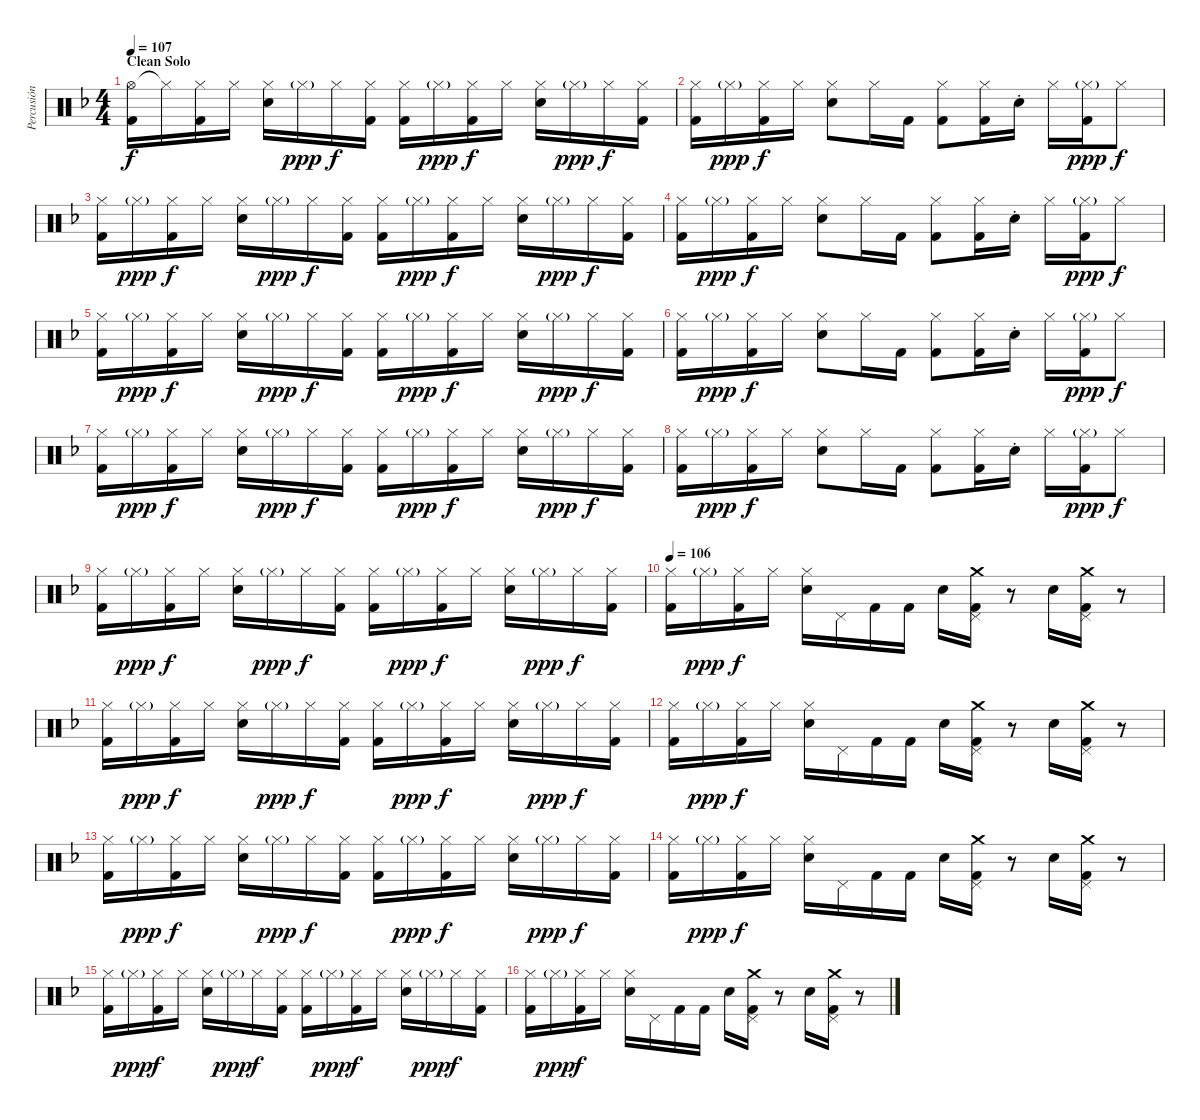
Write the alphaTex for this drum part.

\track ("Percusión" "Percusión") {instrument percussion}
\staff {score}
\articulation defaults
\ts (4 4)
\section ("" "Clean Solo")
\tempo 107
\clef neutral
\ks f
("Hi-Hat (open)" "Kick (hit) 2").16{dy f} "Hi-Hat (closed)"{t}.16 ("Hi-Hat (closed)" "Kick (hit) 2").16 "Hi-Hat (closed)".16 ("Hi-Hat (closed)" "Snare (hit) 2").16 "Hi-Hat (closed)"{g}.16{dy ppp} "Hi-Hat (closed)".16{dy f} ("Hi-Hat (closed)" "Kick (hit) 2").16 ("Hi-Hat (closed)" "Kick (hit) 2").16 "Hi-Hat (closed)"{g}.16{dy ppp} ("Hi-Hat (closed)" "Kick (hit) 2").16{dy f} "Hi-Hat (closed)".16 ("Hi-Hat (closed)" "Snare (hit) 2").16 "Hi-Hat (closed)"{g}.16{dy ppp} "Hi-Hat (closed)".16{dy f} ("Hi-Hat (closed)" "Kick (hit) 2").16 |
("Hi-Hat (closed)" "Kick (hit) 2").16 "Hi-Hat (closed)"{g}.16{dy ppp} ("Hi-Hat (closed)" "Kick (hit) 2").16{dy f} "Hi-Hat (closed)".16 ("Hi-Hat (closed)" "Snare (hit) 2").8 "Hi-Hat (closed)".16 "Kick (hit) 2".16 ("Hi-Hat (closed)" "Kick (hit) 2").8 ("Hi-Hat (closed)" "Kick (hit) 2").16 "Snare (hit) 2"{st}.16 "Hi-Hat (closed)".16 ("Hi-Hat (closed)"{g} "Kick (hit) 2").16{dy ppp} "Hi-Hat (closed)".8{dy f} |
("Hi-Hat (closed)" "Kick (hit) 2").16 "Hi-Hat (closed)"{g}.16{dy ppp} ("Hi-Hat (closed)" "Kick (hit) 2").16{dy f} "Hi-Hat (closed)".16 ("Hi-Hat (closed)" "Snare (hit) 2").16 "Hi-Hat (closed)"{g}.16{dy ppp} "Hi-Hat (closed)".16{dy f} ("Hi-Hat (closed)" "Kick (hit) 2").16 ("Hi-Hat (closed)" "Kick (hit) 2").16 "Hi-Hat (closed)"{g}.16{dy ppp} ("Hi-Hat (closed)" "Kick (hit) 2").16{dy f} "Hi-Hat (closed)".16 ("Hi-Hat (closed)" "Snare (hit) 2").16 "Hi-Hat (closed)"{g}.16{dy ppp} "Hi-Hat (closed)".16{dy f} ("Hi-Hat (closed)" "Kick (hit) 2").16 |
("Hi-Hat (closed)" "Kick (hit) 2").16 "Hi-Hat (closed)"{g}.16{dy ppp} ("Hi-Hat (closed)" "Kick (hit) 2").16{dy f} "Hi-Hat (closed)".16 ("Hi-Hat (closed)" "Snare (hit) 2").8 "Hi-Hat (closed)".16 "Kick (hit) 2".16 ("Hi-Hat (closed)" "Kick (hit) 2").8 ("Hi-Hat (closed)" "Kick (hit) 2").16 "Snare (hit) 2"{st}.16 "Hi-Hat (closed)".16 ("Hi-Hat (closed)"{g} "Kick (hit) 2").16{dy ppp} "Hi-Hat (closed)".8{dy f} |
("Hi-Hat (closed)" "Kick (hit) 2").16 "Hi-Hat (closed)"{g}.16{dy ppp} ("Hi-Hat (closed)" "Kick (hit) 2").16{dy f} "Hi-Hat (closed)".16 ("Hi-Hat (closed)" "Snare (hit) 2").16 "Hi-Hat (closed)"{g}.16{dy ppp} "Hi-Hat (closed)".16{dy f} ("Hi-Hat (closed)" "Kick (hit) 2").16 ("Hi-Hat (closed)" "Kick (hit) 2").16 "Hi-Hat (closed)"{g}.16{dy ppp} ("Hi-Hat (closed)" "Kick (hit) 2").16{dy f} "Hi-Hat (closed)".16 ("Hi-Hat (closed)" "Snare (hit) 2").16 "Hi-Hat (closed)"{g}.16{dy ppp} "Hi-Hat (closed)".16{dy f} ("Hi-Hat (closed)" "Kick (hit) 2").16 |
("Hi-Hat (closed)" "Kick (hit) 2").16 "Hi-Hat (closed)"{g}.16{dy ppp} ("Hi-Hat (closed)" "Kick (hit) 2").16{dy f} "Hi-Hat (closed)".16 ("Hi-Hat (closed)" "Snare (hit) 2").8 "Hi-Hat (closed)".16 "Kick (hit) 2".16 ("Hi-Hat (closed)" "Kick (hit) 2").8 ("Hi-Hat (closed)" "Kick (hit) 2").16 "Snare (hit) 2"{st}.16 "Hi-Hat (closed)".16 ("Hi-Hat (closed)"{g} "Kick (hit) 2").16{dy ppp} "Hi-Hat (closed)".8{dy f} |
("Hi-Hat (closed)" "Kick (hit) 2").16 "Hi-Hat (closed)"{g}.16{dy ppp} ("Hi-Hat (closed)" "Kick (hit) 2").16{dy f} "Hi-Hat (closed)".16 ("Hi-Hat (closed)" "Snare (hit) 2").16 "Hi-Hat (closed)"{g}.16{dy ppp} "Hi-Hat (closed)".16{dy f} ("Hi-Hat (closed)" "Kick (hit) 2").16 ("Hi-Hat (closed)" "Kick (hit) 2").16 "Hi-Hat (closed)"{g}.16{dy ppp} ("Hi-Hat (closed)" "Kick (hit) 2").16{dy f} "Hi-Hat (closed)".16 ("Hi-Hat (closed)" "Snare (hit) 2").16 "Hi-Hat (closed)"{g}.16{dy ppp} "Hi-Hat (closed)".16{dy f} ("Hi-Hat (closed)" "Kick (hit) 2").16 |
("Hi-Hat (closed)" "Kick (hit) 2").16 "Hi-Hat (closed)"{g}.16{dy ppp} ("Hi-Hat (closed)" "Kick (hit) 2").16{dy f} "Hi-Hat (closed)".16 ("Hi-Hat (closed)" "Snare (hit) 2").8 "Hi-Hat (closed)".16 "Kick (hit) 2".16 ("Hi-Hat (closed)" "Kick (hit) 2").8 ("Hi-Hat (closed)" "Kick (hit) 2").16 "Snare (hit) 2"{st}.16 "Hi-Hat (closed)".16 ("Hi-Hat (closed)"{g} "Kick (hit) 2").16{dy ppp} "Hi-Hat (closed)".8{dy f} |
("Hi-Hat (closed)" "Kick (hit) 2").16 "Hi-Hat (closed)"{g}.16{dy ppp} ("Hi-Hat (closed)" "Kick (hit) 2").16{dy f} "Hi-Hat (closed)".16 ("Hi-Hat (closed)" "Snare (hit) 2").16 "Hi-Hat (closed)"{g}.16{dy ppp} "Hi-Hat (closed)".16{dy f} ("Hi-Hat (closed)" "Kick (hit) 2").16 ("Hi-Hat (closed)" "Kick (hit) 2").16 "Hi-Hat (closed)"{g}.16{dy ppp} ("Hi-Hat (closed)" "Kick (hit) 2").16{dy f} "Hi-Hat (closed)".16 ("Hi-Hat (closed)" "Snare (hit) 2").16 "Hi-Hat (closed)"{g}.16{dy ppp} "Hi-Hat (closed)".16{dy f} ("Hi-Hat (closed)" "Kick (hit) 2").16 |
\tempo 106
("Hi-Hat (closed)" "Kick (hit) 2").16 "Hi-Hat (closed)"{g}.16{dy ppp} ("Hi-Hat (closed)" "Kick (hit) 2").16{dy f} "Hi-Hat (closed)".16 ("Hi-Hat (closed)" "Snare (hit) 2").16 "Pedal Hi-Hat (hit)".16 "Kick (hit) 2".16 "Kick (hit) 2".16 "Snare (hit) 2".16 ("Crash medium (hit)" "Pedal Hi-Hat (hit)" "Kick (hit) 2").16 r.8 "Snare (hit) 2".16 ("Crash medium (hit)" "Pedal Hi-Hat (hit)" "Kick (hit) 2").16 r.8 |
("Hi-Hat (closed)" "Kick (hit) 2").16 "Hi-Hat (closed)"{g}.16{dy ppp} ("Hi-Hat (closed)" "Kick (hit) 2").16{dy f} "Hi-Hat (closed)".16 ("Hi-Hat (closed)" "Snare (hit) 2").16 "Hi-Hat (closed)"{g}.16{dy ppp} "Hi-Hat (closed)".16{dy f} ("Hi-Hat (closed)" "Kick (hit) 2").16 ("Hi-Hat (closed)" "Kick (hit) 2").16 "Hi-Hat (closed)"{g}.16{dy ppp} ("Hi-Hat (closed)" "Kick (hit) 2").16{dy f} "Hi-Hat (closed)".16 ("Hi-Hat (closed)" "Snare (hit) 2").16 "Hi-Hat (closed)"{g}.16{dy ppp} "Hi-Hat (closed)".16{dy f} ("Hi-Hat (closed)" "Kick (hit) 2").16 |
("Hi-Hat (closed)" "Kick (hit) 2").16 "Hi-Hat (closed)"{g}.16{dy ppp} ("Hi-Hat (closed)" "Kick (hit) 2").16{dy f} "Hi-Hat (closed)".16 ("Hi-Hat (closed)" "Snare (hit) 2").16 "Pedal Hi-Hat (hit)".16 "Kick (hit) 2".16 "Kick (hit) 2".16 "Snare (hit) 2".16 ("Crash medium (hit)" "Pedal Hi-Hat (hit)" "Kick (hit) 2").16 r.8 "Snare (hit) 2".16 ("Crash medium (hit)" "Pedal Hi-Hat (hit)" "Kick (hit) 2").16 r.8 |
("Hi-Hat (closed)" "Kick (hit) 2").16 "Hi-Hat (closed)"{g}.16{dy ppp} ("Hi-Hat (closed)" "Kick (hit) 2").16{dy f} "Hi-Hat (closed)".16 ("Hi-Hat (closed)" "Snare (hit) 2").16 "Hi-Hat (closed)"{g}.16{dy ppp} "Hi-Hat (closed)".16{dy f} ("Hi-Hat (closed)" "Kick (hit) 2").16 ("Hi-Hat (closed)" "Kick (hit) 2").16 "Hi-Hat (closed)"{g}.16{dy ppp} ("Hi-Hat (closed)" "Kick (hit) 2").16{dy f} "Hi-Hat (closed)".16 ("Hi-Hat (closed)" "Snare (hit) 2").16 "Hi-Hat (closed)"{g}.16{dy ppp} "Hi-Hat (closed)".16{dy f} ("Hi-Hat (closed)" "Kick (hit) 2").16 |
("Hi-Hat (closed)" "Kick (hit) 2").16 "Hi-Hat (closed)"{g}.16{dy ppp} ("Hi-Hat (closed)" "Kick (hit) 2").16{dy f} "Hi-Hat (closed)".16 ("Hi-Hat (closed)" "Snare (hit) 2").16 "Pedal Hi-Hat (hit)".16 "Kick (hit) 2".16 "Kick (hit) 2".16 "Snare (hit) 2".16 ("Crash medium (hit)" "Pedal Hi-Hat (hit)" "Kick (hit) 2").16 r.8 "Snare (hit) 2".16 ("Crash medium (hit)" "Pedal Hi-Hat (hit)" "Kick (hit) 2").16 r.8 |
("Hi-Hat (closed)" "Kick (hit) 2").16 "Hi-Hat (closed)"{g}.16{dy ppp} ("Hi-Hat (closed)" "Kick (hit) 2").16{dy f} "Hi-Hat (closed)".16 ("Hi-Hat (closed)" "Snare (hit) 2").16 "Hi-Hat (closed)"{g}.16{dy ppp} "Hi-Hat (closed)".16{dy f} ("Hi-Hat (closed)" "Kick (hit) 2").16 ("Hi-Hat (closed)" "Kick (hit) 2").16 "Hi-Hat (closed)"{g}.16{dy ppp} ("Hi-Hat (closed)" "Kick (hit) 2").16{dy f} "Hi-Hat (closed)".16 ("Hi-Hat (closed)" "Snare (hit) 2").16 "Hi-Hat (closed)"{g}.16{dy ppp} "Hi-Hat (closed)".16{dy f} ("Hi-Hat (closed)" "Kick (hit) 2").16 |
("Hi-Hat (closed)" "Kick (hit) 2").16 "Hi-Hat (closed)"{g}.16{dy ppp} ("Hi-Hat (closed)" "Kick (hit) 2").16{dy f} "Hi-Hat (closed)".16 ("Hi-Hat (closed)" "Snare (hit) 2").16 "Pedal Hi-Hat (hit)".16 "Kick (hit) 2".16 "Kick (hit) 2".16 "Snare (hit) 2".16 ("Crash medium (hit)" "Pedal Hi-Hat (hit)" "Kick (hit) 2").16 r.8 "Snare (hit) 2".16 ("Crash medium (hit)" "Pedal Hi-Hat (hit)" "Kick (hit) 2").16 r.8
